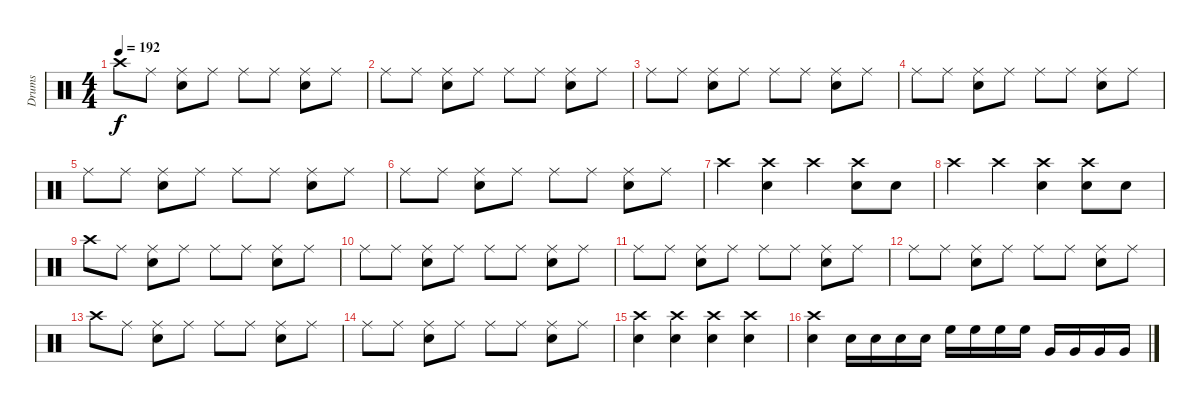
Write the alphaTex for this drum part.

\track ("Drums" "Drums") {instrument percussion}
\staff {score}
\articulation defaults
\ts (4 4)
\tempo 192
\clef neutral
\ks c "Crash high (hit)".8{dy f} "Ride (middle)".8
("Ride (middle)" "Snare (hit) 2").8 "Ride (middle)".8 "Ride (middle)".8 "Ride (middle)".8 ("Ride (middle)" "Snare (hit) 2").8 "Ride (middle)".8 |
"Ride (middle)".8 "Ride (middle)".8 ("Ride (middle)" "Snare (hit) 2").8 "Ride (middle)".8 "Ride (middle)".8 "Ride (middle)".8 ("Ride (middle)" "Snare (hit) 2").8 "Ride (middle)".8 |
"Ride (middle)".8 "Ride (middle)".8 ("Ride (middle)" "Snare (hit) 2").8 "Ride (middle)".8 "Ride (middle)".8 "Ride (middle)".8 ("Ride (middle)" "Snare (hit) 2").8 "Ride (middle)".8 |
"Ride (middle)".8 "Ride (middle)".8 ("Ride (middle)" "Snare (hit) 2").8 "Ride (middle)".8 "Ride (middle)".8 "Ride (middle)".8 ("Ride (middle)" "Snare (hit) 2").8 "Ride (middle)".8 |
"Ride (middle)".8 "Ride (middle)".8 ("Ride (middle)" "Snare (hit) 2").8 "Ride (middle)".8 "Ride (middle)".8 "Ride (middle)".8 ("Ride (middle)" "Snare (hit) 2").8 "Ride (middle)".8 |
"Ride (middle)".8 "Ride (middle)".8 ("Ride (middle)" "Snare (hit) 2").8 "Ride (middle)".8 "Ride (middle)".8 "Ride (middle)".8 ("Ride (middle)" "Snare (hit) 2").8 "Ride (middle)".8 |
"Crash high (hit)".4 ("Crash high (hit)" "Snare (hit) 2").4 "Crash high (hit)".4 ("Crash high (hit)" "Snare (hit) 2").8 "Snare (hit) 2".8 |
"Crash high (hit)".4 "Crash high (hit)".4 ("Crash high (hit)" "Snare (hit) 2").4 ("Crash high (hit)" "Snare (hit) 2").8 "Snare (hit) 2".8 |
"Crash high (hit)".8 "Ride (middle)".8 ("Ride (middle)" "Snare (hit) 2").8 "Ride (middle)".8 "Ride (middle)".8 "Ride (middle)".8 ("Ride (middle)" "Snare (hit) 2").8 "Ride (middle)".8 |
"Ride (middle)".8 "Ride (middle)".8 ("Ride (middle)" "Snare (hit) 2").8 "Ride (middle)".8 "Ride (middle)".8 "Ride (middle)".8 ("Ride (middle)" "Snare (hit) 2").8 "Ride (middle)".8 |
"Ride (middle)".8 "Ride (middle)".8 ("Ride (middle)" "Snare (hit) 2").8 "Ride (middle)".8 "Ride (middle)".8 "Ride (middle)".8 ("Ride (middle)" "Snare (hit) 2").8 "Ride (middle)".8 |
"Ride (middle)".8 "Ride (middle)".8 ("Ride (middle)" "Snare (hit) 2").8 "Ride (middle)".8 "Ride (middle)".8 "Ride (middle)".8 ("Ride (middle)" "Snare (hit) 2").8 "Ride (middle)".8 |
"Crash high (hit)".8 "Ride (middle)".8 ("Ride (middle)" "Snare (hit) 2").8 "Ride (middle)".8 "Ride (middle)".8 "Ride (middle)".8 ("Ride (middle)" "Snare (hit) 2").8 "Ride (middle)".8 |
"Ride (middle)".8 "Ride (middle)".8 ("Ride (middle)" "Snare (hit) 2").8 "Ride (middle)".8 "Ride (middle)".8 "Ride (middle)".8 ("Ride (middle)" "Snare (hit) 2").8 "Ride (middle)".8 |
("Crash high (hit)" "Snare (hit) 2").4 ("Crash high (hit)" "Snare (hit) 2").4 ("Crash high (hit)" "Snare (hit) 2").4 ("Crash high (hit)" "Snare (hit) 2").4 |
("Crash high (hit)" "Snare (hit) 2").4 "Snare (hit) 2".16 "Snare (hit) 2".16 "Snare (hit) 2".16 "Snare (hit) 2".16 "High Floor Tom (hit)".16 "High Floor Tom (hit)".16 "High Floor Tom (hit)".16 "High Floor Tom (hit)".16 "Very Low Tom (hit)".16 "Very Low Tom (hit)".16 "Very Low Tom (hit)".16 "Very Low Tom (hit)".16
